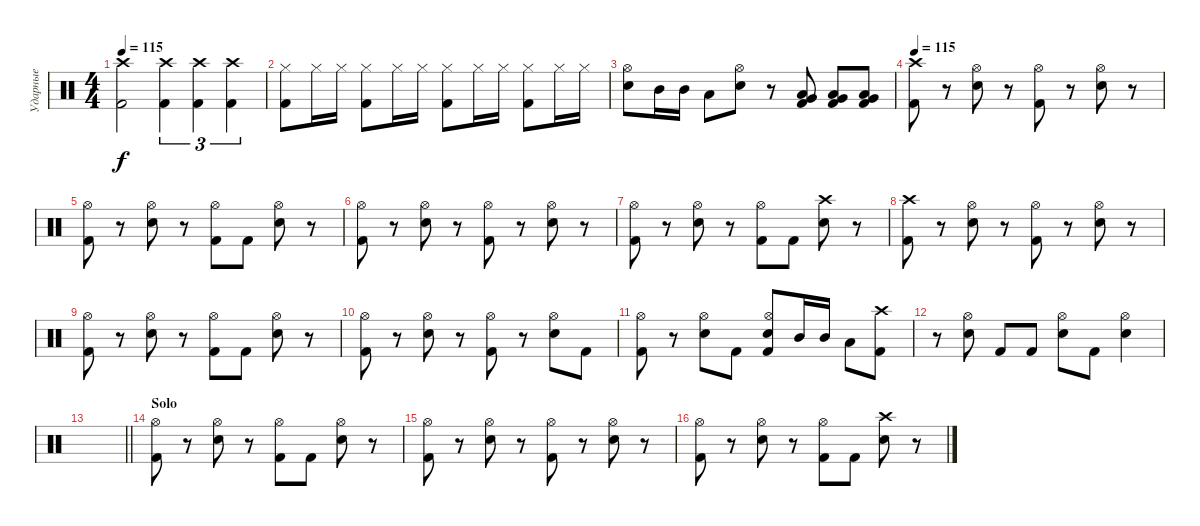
\track ("Ударные" "Ударные") {instrument percussion}
\staff {score}
\articulation defaults
\ts (4 4)
\tempo 115
\clef neutral
\ks c
("Kick (hit) 2" "Crash high (hit)").2{dy f} ("Kick (hit) 2" "Crash high (hit)").4{tu (3 2)} ("Kick (hit) 2" "Crash high (hit)").4{tu (3 2)} ("Kick (hit) 2" "Crash high (hit)").4{tu (3 2)} |
("Kick (hit) 2" "Hi-Hat (closed)").8 "Hi-Hat (closed)".16 "Hi-Hat (closed)".16 ("Kick (hit) 2" "Hi-Hat (closed)").8 "Hi-Hat (closed)".16 "Hi-Hat (closed)".16 ("Kick (hit) 2" "Hi-Hat (closed)").8 "Hi-Hat (closed)".16 "Hi-Hat (closed)".16 ("Kick (hit) 2" "Hi-Hat (closed)").8 "Hi-Hat (closed)".16 "Hi-Hat (closed)".16 |
("Hi-Hat (open)" "Electric Snare (hit)").8 "Mid Tom (hit)".16 "Mid Tom (hit)".16 "Low Tom (hit)".8 ("Electric Snare (hit)" "Hi-Hat (open)").8 r.8 ("Kick (hit) 2" "Very Low Tom (hit)" "Low Tom (hit)").8 ("Kick (hit) 2" "Very Low Tom (hit)" "Low Tom (hit)").8 ("Kick (hit) 2" "Very Low Tom (hit)" "Low Tom (hit)").8 |
\tempo 115
("Kick (hit) 2" "Crash high (hit)").8 r.8 ("Hi-Hat (open)" "Electric Snare (hit)").8 r.8 ("Kick (hit) 2" "Hi-Hat (open)").8 r.8 ("Hi-Hat (open)" "Electric Snare (hit)").8 r.8 |
("Kick (hit) 2" "Hi-Hat (open)").8 r.8 ("Hi-Hat (open)" "Electric Snare (hit)").8 r.8 ("Kick (hit) 2" "Hi-Hat (open)").8 "Kick (hit) 2".8 ("Hi-Hat (open)" "Electric Snare (hit)").8 r.8 |
("Kick (hit) 2" "Hi-Hat (open)").8 r.8 ("Hi-Hat (open)" "Electric Snare (hit)").8 r.8 ("Kick (hit) 2" "Hi-Hat (open)").8 r.8 ("Hi-Hat (open)" "Electric Snare (hit)").8 r.8 |
("Kick (hit) 2" "Hi-Hat (open)").8 r.8 ("Hi-Hat (open)" "Electric Snare (hit)").8 r.8 ("Kick (hit) 2" "Hi-Hat (open)").8 "Kick (hit) 2".8 ("Crash high (hit)" "Electric Snare (hit)").8 r.8 |
("Kick (hit) 2" "Crash high (hit)").8 r.8 ("Hi-Hat (open)" "Electric Snare (hit)").8 r.8 ("Kick (hit) 2" "Hi-Hat (open)").8 r.8 ("Hi-Hat (open)" "Electric Snare (hit)").8 r.8 |
("Kick (hit) 2" "Hi-Hat (open)").8 r.8 ("Hi-Hat (open)" "Electric Snare (hit)").8 r.8 ("Kick (hit) 2" "Hi-Hat (open)").8 "Kick (hit) 2".8 ("Hi-Hat (open)" "Electric Snare (hit)").8 r.8 |
("Kick (hit) 2" "Hi-Hat (open)").8 r.8 ("Hi-Hat (open)" "Electric Snare (hit)").8 r.8 ("Kick (hit) 2" "Hi-Hat (open)").8 r.8 ("Hi-Hat (open)" "Electric Snare (hit)").8 "Kick (hit) 2".8 |
("Kick (hit) 2" "Hi-Hat (open)").8 r.8 ("Hi-Hat (open)" "Electric Snare (hit)").8 "Kick (hit) 2".8 ("Kick (hit) 2" "Hi-Hat (open)" "Electric Snare (hit)").8 "Mid Tom (hit)".16 "Mid Tom (hit)".16 "Low Tom (hit)".8 ("Kick (hit) 2" "Crash high (hit)").8 |
r.8 ("Hi-Hat (open)" "Electric Snare (hit)").8 "Kick (hit) 2".8 "Kick (hit) 2".8 ("Hi-Hat (open)" "Electric Snare (hit)").8 "Kick (hit) 2".8 ("Hi-Hat (open)" "Electric Snare (hit)").4 |
\barLineRight lightlight
|
\section ("" "Solo")
("Kick (hit) 2" "Hi-Hat (open)").8 r.8 ("Hi-Hat (open)" "Electric Snare (hit)").8 r.8 ("Kick (hit) 2" "Hi-Hat (open)").8 "Kick (hit) 2".8 ("Hi-Hat (open)" "Electric Snare (hit)").8 r.8 |
("Kick (hit) 2" "Hi-Hat (open)").8 r.8 ("Hi-Hat (open)" "Electric Snare (hit)").8 r.8 ("Kick (hit) 2" "Hi-Hat (open)").8 r.8 ("Hi-Hat (open)" "Electric Snare (hit)").8 r.8 |
("Kick (hit) 2" "Hi-Hat (open)").8 r.8 ("Hi-Hat (open)" "Electric Snare (hit)").8 r.8 ("Kick (hit) 2" "Hi-Hat (open)").8 "Kick (hit) 2".8 ("Crash high (hit)" "Electric Snare (hit)").8 r.8
